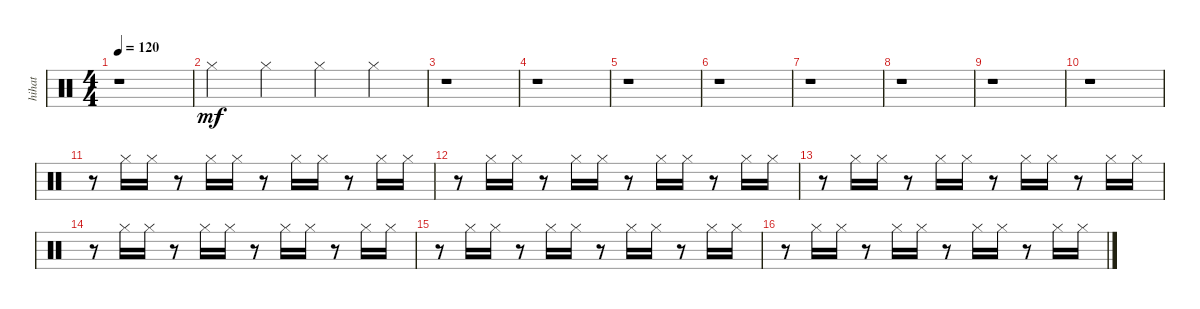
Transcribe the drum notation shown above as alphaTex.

\track ("hihat" "hihat") {instrument percussion}
\staff {score}
\articulation defaults
\ts (4 4)
\tempo 120
\clef neutral
\ks c
r.1{dy mf} |
"Hi-Hat (closed)".4 "Hi-Hat (closed)".4 "Hi-Hat (closed)".4 "Hi-Hat (closed)".4 |
r.1 |
r.1 |
r.1 |
r.1 |
r.1 |
r.1 |
r.1 |
r.1 |
r.8 "Hi-Hat (closed)".16 "Hi-Hat (closed)".16 r.8 "Hi-Hat (closed)".16 "Hi-Hat (closed)".16 r.8 "Hi-Hat (closed)".16 "Hi-Hat (closed)".16 r.8 "Hi-Hat (closed)".16 "Hi-Hat (closed)".16 |
r.8 "Hi-Hat (closed)".16 "Hi-Hat (closed)".16 r.8 "Hi-Hat (closed)".16 "Hi-Hat (closed)".16 r.8 "Hi-Hat (closed)".16 "Hi-Hat (closed)".16 r.8 "Hi-Hat (closed)".16 "Hi-Hat (closed)".16 |
r.8 "Hi-Hat (closed)".16 "Hi-Hat (closed)".16 r.8 "Hi-Hat (closed)".16 "Hi-Hat (closed)".16 r.8 "Hi-Hat (closed)".16 "Hi-Hat (closed)".16 r.8 "Hi-Hat (closed)".16 "Hi-Hat (closed)".16 |
r.8 "Hi-Hat (closed)".16 "Hi-Hat (closed)".16 r.8 "Hi-Hat (closed)".16 "Hi-Hat (closed)".16 r.8 "Hi-Hat (closed)".16 "Hi-Hat (closed)".16 r.8 "Hi-Hat (closed)".16 "Hi-Hat (closed)".16 |
r.8 "Hi-Hat (closed)".16 "Hi-Hat (closed)".16 r.8 "Hi-Hat (closed)".16 "Hi-Hat (closed)".16 r.8 "Hi-Hat (closed)".16 "Hi-Hat (closed)".16 r.8 "Hi-Hat (closed)".16 "Hi-Hat (closed)".16 |
r.8 "Hi-Hat (closed)".16 "Hi-Hat (closed)".16 r.8 "Hi-Hat (closed)".16 "Hi-Hat (closed)".16 r.8 "Hi-Hat (closed)".16 "Hi-Hat (closed)".16 r.8 "Hi-Hat (closed)".16 "Hi-Hat (closed)".16
